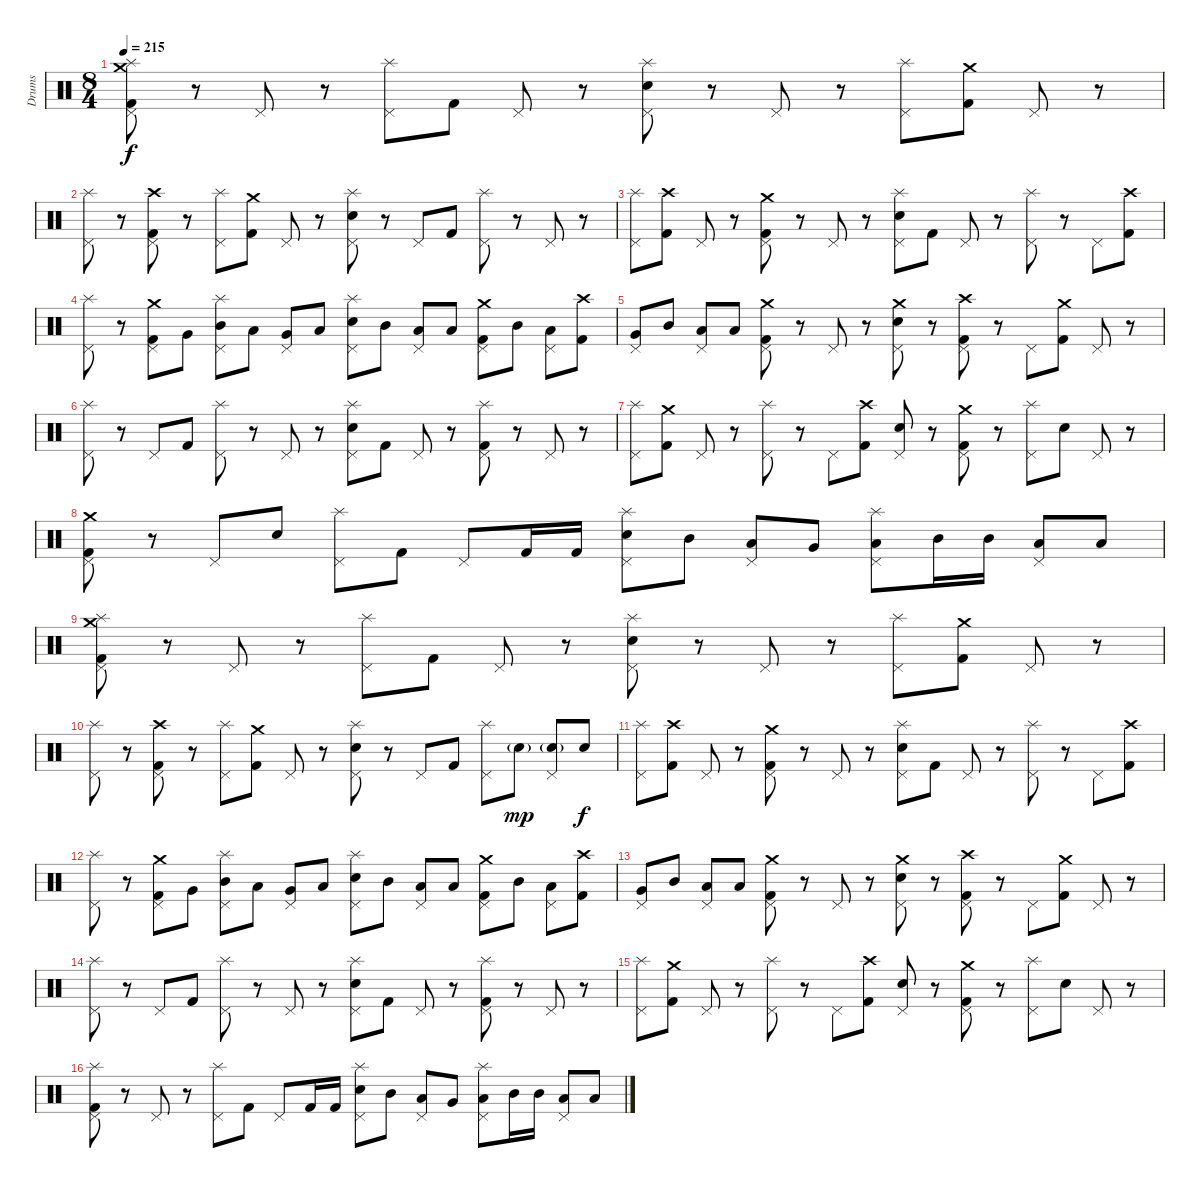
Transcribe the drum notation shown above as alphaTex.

\track ("Drums" "Drums") {instrument percussion}
\staff {score}
\articulation defaults
\ts (8 4)
\tempo 215
\clef neutral
\ks c
("Splash (hit)" "Crash medium (hit)" "Pedal Hi-Hat (hit)" "Kick (hit) 2").8{dy f volume 10} r.8 "Pedal Hi-Hat (hit)".8 r.8 ("Splash (hit)" "Pedal Hi-Hat (hit)").8 "Kick (hit) 2".8 "Pedal Hi-Hat (hit)".8 r.8 ("Splash (hit)" "Pedal Hi-Hat (hit)" "Electric Snare (hit)").8 r.8 "Pedal Hi-Hat (hit)".8 r.8 ("Splash (hit)" "Pedal Hi-Hat (hit)").8 ("Crash medium (hit)" "Kick (hit) 2").8 "Pedal Hi-Hat (hit)".8 r.8 |
("Splash (hit)" "Pedal Hi-Hat (hit)").8 r.8 ("Crash high (hit)" "Pedal Hi-Hat (hit)" "Kick (hit) 2").8 r.8 ("Splash (hit)" "Pedal Hi-Hat (hit)").8 ("Crash medium (hit)" "Kick (hit) 2").8 "Pedal Hi-Hat (hit)".8 r.8 ("Splash (hit)" "Pedal Hi-Hat (hit)" "Electric Snare (hit)").8 r.8 "Pedal Hi-Hat (hit)".8 "Kick (hit) 2".8 ("Splash (hit)" "Pedal Hi-Hat (hit)").8 r.8 "Pedal Hi-Hat (hit)".8 r.8 |
("Splash (hit)" "Pedal Hi-Hat (hit)").8{volume 8} ("Crash high (hit)" "Kick (hit) 2").8 "Pedal Hi-Hat (hit)".8 r.8 ("Crash medium (hit)" "Pedal Hi-Hat (hit)" "Kick (hit) 2").8 r.8 "Pedal Hi-Hat (hit)".8 r.8 ("Splash (hit)" "Pedal Hi-Hat (hit)" "Electric Snare (hit)").8 "Kick (hit) 2".8 "Pedal Hi-Hat (hit)".8 r.8 ("Splash (hit)" "Pedal Hi-Hat (hit)").8 r.8 "Pedal Hi-Hat (hit)".8 ("Crash high (hit)" "Kick (hit) 2").8 |
("Splash (hit)" "Pedal Hi-Hat (hit)").8 r.8 ("Crash medium (hit)" "Pedal Hi-Hat (hit)" "Kick (hit) 2").8 "Very Low Tom (hit)".8 ("Splash (hit)" "Mid Tom (hit)" "Pedal Hi-Hat (hit)").8 "Low Tom (hit)".8 ("Pedal Hi-Hat (hit)" "Very Low Tom (hit)").8 "Low Floor Tom (hit)".8 ("Splash (hit)" "Pedal Hi-Hat (hit)" "Electric Snare (hit)").8 "Mid Tom (hit)".8 ("Low Tom (hit)" "Pedal Hi-Hat (hit)").8 "Low Floor Tom (hit)".8 ("Crash medium (hit)" "Pedal Hi-Hat (hit)" "Kick (hit) 2").8 "Mid Tom (hit)".8 ("Low Tom (hit)" "Pedal Hi-Hat (hit)").8 ("Crash high (hit)" "Kick (hit) 2").8 |
("Pedal Hi-Hat (hit)" "Very Low Tom (hit)").8{volume 6} "Mid Tom (hit)".8 ("Low Tom (hit)" "Pedal Hi-Hat (hit)").8 "Low Floor Tom (hit)".8 ("Crash medium (hit)" "Pedal Hi-Hat (hit)" "Kick (hit) 2").8 r.8 "Pedal Hi-Hat (hit)".8 r.8 ("Crash medium (hit)" "Pedal Hi-Hat (hit)" "Electric Snare (hit)").8 r.8 ("Crash high (hit)" "Pedal Hi-Hat (hit)" "Kick (hit) 2").8 r.8 "Pedal Hi-Hat (hit)".8 ("Crash medium (hit)" "Kick (hit) 2").8 "Pedal Hi-Hat (hit)".8 r.8 |
("Splash (hit)" "Pedal Hi-Hat (hit)").8 r.8 "Pedal Hi-Hat (hit)".8 "Kick (hit) 2".8 ("Splash (hit)" "Pedal Hi-Hat (hit)").8 r.8 "Pedal Hi-Hat (hit)".8 r.8 ("Splash (hit)" "Pedal Hi-Hat (hit)" "Electric Snare (hit)").8 "Kick (hit) 2".8 "Pedal Hi-Hat (hit)".8 r.8 ("Splash (hit)" "Pedal Hi-Hat (hit)" "Kick (hit) 2").8 r.8 "Pedal Hi-Hat (hit)".8 r.8 |
("Splash (hit)" "Pedal Hi-Hat (hit)").8{volume 5} ("Crash medium (hit)" "Kick (hit) 2").8 "Pedal Hi-Hat (hit)".8 r.8 ("Splash (hit)" "Pedal Hi-Hat (hit)").8 r.8 "Pedal Hi-Hat (hit)".8 ("Crash high (hit)" "Kick (hit) 2").8 ("Pedal Hi-Hat (hit)" "Electric Snare (hit)").8 r.8 ("Crash medium (hit)" "Pedal Hi-Hat (hit)" "Kick (hit) 2").8 r.8 ("Splash (hit)" "Pedal Hi-Hat (hit)").8 "Electric Snare (hit)".8 "Pedal Hi-Hat (hit)".8 r.8 |
("Crash medium (hit)" "Pedal Hi-Hat (hit)" "Kick (hit) 2").8 r.8 "Pedal Hi-Hat (hit)".8 "Electric Snare (hit)".8 ("Splash (hit)" "Pedal Hi-Hat (hit)").8 "Kick (hit) 2".8 "Pedal Hi-Hat (hit)".8 "Kick (hit) 2".16 "Kick (hit) 2".16 ("Splash (hit)" "Pedal Hi-Hat (hit)" "Electric Snare (hit)").8 "Mid Tom (hit)".8 ("Low Tom (hit)" "Pedal Hi-Hat (hit)").8 "Very Low Tom (hit)".8 ("Splash (hit)" "Pedal Hi-Hat (hit)" "Low Floor Tom (hit)").8 "Mid Tom (hit)".16 "Mid Tom (hit)".16 ("Low Tom (hit)" "Pedal Hi-Hat (hit)").8 "Low Floor Tom (hit)".8 |
("Splash (hit)" "Crash medium (hit)" "Pedal Hi-Hat (hit)" "Kick (hit) 2").8{volume 5} r.8 "Pedal Hi-Hat (hit)".8 r.8 ("Splash (hit)" "Pedal Hi-Hat (hit)").8 "Kick (hit) 2".8 "Pedal Hi-Hat (hit)".8 r.8 ("Splash (hit)" "Pedal Hi-Hat (hit)" "Electric Snare (hit)").8 r.8 "Pedal Hi-Hat (hit)".8 r.8 ("Splash (hit)" "Pedal Hi-Hat (hit)").8 ("Crash medium (hit)" "Kick (hit) 2").8 "Pedal Hi-Hat (hit)".8 r.8 |
("Splash (hit)" "Pedal Hi-Hat (hit)").8 r.8 ("Crash high (hit)" "Pedal Hi-Hat (hit)" "Kick (hit) 2").8 r.8 ("Splash (hit)" "Pedal Hi-Hat (hit)").8 ("Crash medium (hit)" "Kick (hit) 2").8 "Pedal Hi-Hat (hit)".8 r.8 ("Splash (hit)" "Pedal Hi-Hat (hit)" "Electric Snare (hit)").8 r.8 "Pedal Hi-Hat (hit)".8 "Kick (hit) 2".8 ("Splash (hit)" "Pedal Hi-Hat (hit)").8 "Electric Snare (hit)"{g}.8{dy mp} ("Pedal Hi-Hat (hit)" "Electric Snare (hit)"{g}).8 "Electric Snare (hit)".8{dy f} |
("Splash (hit)" "Pedal Hi-Hat (hit)").8{volume 3} ("Crash high (hit)" "Kick (hit) 2").8 "Pedal Hi-Hat (hit)".8 r.8 ("Crash medium (hit)" "Pedal Hi-Hat (hit)" "Kick (hit) 2").8 r.8 "Pedal Hi-Hat (hit)".8 r.8 ("Splash (hit)" "Pedal Hi-Hat (hit)" "Electric Snare (hit)").8 "Kick (hit) 2".8 "Pedal Hi-Hat (hit)".8 r.8 ("Splash (hit)" "Pedal Hi-Hat (hit)").8 r.8 "Pedal Hi-Hat (hit)".8 ("Crash high (hit)" "Kick (hit) 2").8 |
("Splash (hit)" "Pedal Hi-Hat (hit)").8 r.8 ("Crash medium (hit)" "Pedal Hi-Hat (hit)" "Kick (hit) 2").8 "Very Low Tom (hit)".8 ("Splash (hit)" "Mid Tom (hit)" "Pedal Hi-Hat (hit)").8 "Low Tom (hit)".8 ("Pedal Hi-Hat (hit)" "Very Low Tom (hit)").8 "Low Floor Tom (hit)".8 ("Splash (hit)" "Pedal Hi-Hat (hit)" "Electric Snare (hit)").8 "Mid Tom (hit)".8 ("Low Tom (hit)" "Pedal Hi-Hat (hit)").8 "Low Floor Tom (hit)".8 ("Crash medium (hit)" "Pedal Hi-Hat (hit)" "Kick (hit) 2").8 "Mid Tom (hit)".8 ("Low Tom (hit)" "Pedal Hi-Hat (hit)").8 ("Crash high (hit)" "Kick (hit) 2").8 |
("Pedal Hi-Hat (hit)" "Very Low Tom (hit)").8{volume 2} "Mid Tom (hit)".8 ("Low Tom (hit)" "Pedal Hi-Hat (hit)").8 "Low Floor Tom (hit)".8 ("Crash medium (hit)" "Pedal Hi-Hat (hit)" "Kick (hit) 2").8 r.8 "Pedal Hi-Hat (hit)".8 r.8 ("Crash medium (hit)" "Pedal Hi-Hat (hit)" "Electric Snare (hit)").8 r.8 ("Crash high (hit)" "Pedal Hi-Hat (hit)" "Kick (hit) 2").8 r.8 "Pedal Hi-Hat (hit)".8 ("Crash medium (hit)" "Kick (hit) 2").8 "Pedal Hi-Hat (hit)".8 r.8 |
("Splash (hit)" "Pedal Hi-Hat (hit)").8 r.8 "Pedal Hi-Hat (hit)".8 "Kick (hit) 2".8 ("Splash (hit)" "Pedal Hi-Hat (hit)").8 r.8 "Pedal Hi-Hat (hit)".8 r.8 ("Splash (hit)" "Pedal Hi-Hat (hit)" "Electric Snare (hit)").8 "Kick (hit) 2".8 "Pedal Hi-Hat (hit)".8 r.8 ("Splash (hit)" "Pedal Hi-Hat (hit)" "Kick (hit) 2").8 r.8 "Pedal Hi-Hat (hit)".8 r.8 |
("Splash (hit)" "Pedal Hi-Hat (hit)").8{volume 0} ("Crash medium (hit)" "Kick (hit) 2").8 "Pedal Hi-Hat (hit)".8 r.8 ("Splash (hit)" "Pedal Hi-Hat (hit)").8 r.8 "Pedal Hi-Hat (hit)".8 ("Crash high (hit)" "Kick (hit) 2").8 ("Pedal Hi-Hat (hit)" "Electric Snare (hit)").8 r.8 ("Crash medium (hit)" "Pedal Hi-Hat (hit)" "Kick (hit) 2").8 r.8 ("Splash (hit)" "Pedal Hi-Hat (hit)").8 "Electric Snare (hit)".8 "Pedal Hi-Hat (hit)".8 r.8 |
("Splash (hit)" "Pedal Hi-Hat (hit)" "Kick (hit) 2").8 r.8 "Pedal Hi-Hat (hit)".8 r.8 ("Splash (hit)" "Pedal Hi-Hat (hit)").8 "Kick (hit) 2".8 "Pedal Hi-Hat (hit)".8 "Kick (hit) 2".16 "Kick (hit) 2".16 ("Splash (hit)" "Pedal Hi-Hat (hit)" "Electric Snare (hit)").8 "Mid Tom (hit)".8 ("Low Tom (hit)" "Pedal Hi-Hat (hit)").8 "Very Low Tom (hit)".8 ("Splash (hit)" "Pedal Hi-Hat (hit)" "Low Floor Tom (hit)").8 "Mid Tom (hit)".16 "Mid Tom (hit)".16 ("Low Tom (hit)" "Pedal Hi-Hat (hit)").8 "Low Floor Tom (hit)".8
